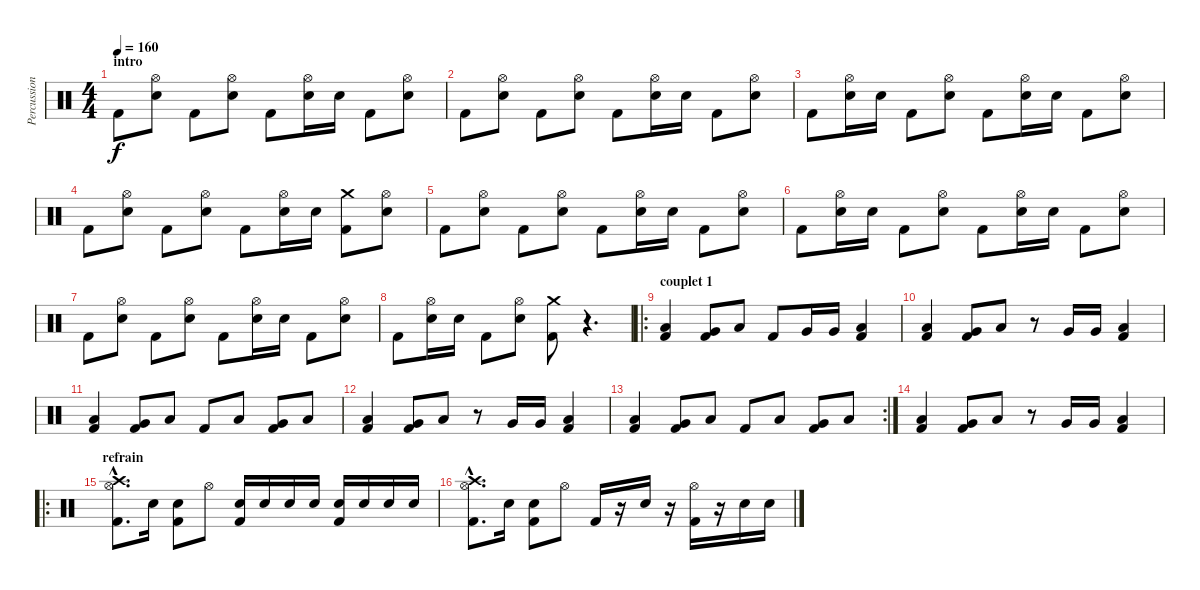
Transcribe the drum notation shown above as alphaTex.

\track ("Percussions" "Percussion") {instrument percussion}
\staff {score}
\articulation defaults
\ts (4 4)
\section ("" "intro")
\tempo 160
\clef neutral
\ks c "Kick (hit) 2".8{dy f}
("Electric Snare (hit)" "Hi-Hat (open)").8 "Kick (hit) 2".8 ("Electric Snare (hit)" "Hi-Hat (open)").8 "Kick (hit) 2".8 ("Electric Snare (hit)" "Hi-Hat (open)").16 "Electric Snare (hit)".16 "Kick (hit) 2".8 ("Electric Snare (hit)" "Hi-Hat (open)").8 |
"Kick (hit) 2".8 ("Electric Snare (hit)" "Hi-Hat (open)").8 "Kick (hit) 2".8 ("Electric Snare (hit)" "Hi-Hat (open)").8 "Kick (hit) 2".8 ("Electric Snare (hit)" "Hi-Hat (open)").16 "Electric Snare (hit)".16 "Kick (hit) 2".8 ("Electric Snare (hit)" "Hi-Hat (open)").8 |
"Kick (hit) 2".8 ("Electric Snare (hit)" "Hi-Hat (open)").16 "Electric Snare (hit)".16 "Kick (hit) 2".8 ("Electric Snare (hit)" "Hi-Hat (open)").8 "Kick (hit) 2".8 ("Electric Snare (hit)" "Hi-Hat (open)").16 "Electric Snare (hit)".16 "Kick (hit) 2".8 ("Electric Snare (hit)" "Hi-Hat (open)").8 |
"Kick (hit) 2".8 ("Electric Snare (hit)" "Hi-Hat (open)").8 "Kick (hit) 2".8 ("Electric Snare (hit)" "Hi-Hat (open)").8 "Kick (hit) 2".8 ("Electric Snare (hit)" "Hi-Hat (open)").16 "Electric Snare (hit)".16 ("Kick (hit) 2" "Crash medium (hit)").8 ("Electric Snare (hit)" "Hi-Hat (open)").8 |
"Kick (hit) 2".8 ("Electric Snare (hit)" "Hi-Hat (open)").8 "Kick (hit) 2".8 ("Electric Snare (hit)" "Hi-Hat (open)").8 "Kick (hit) 2".8 ("Electric Snare (hit)" "Hi-Hat (open)").16 "Electric Snare (hit)".16 "Kick (hit) 2".8 ("Electric Snare (hit)" "Hi-Hat (open)").8 |
"Kick (hit) 2".8 ("Electric Snare (hit)" "Hi-Hat (open)").16 "Electric Snare (hit)".16 "Kick (hit) 2".8 ("Electric Snare (hit)" "Hi-Hat (open)").8 "Kick (hit) 2".8 ("Electric Snare (hit)" "Hi-Hat (open)").16 "Electric Snare (hit)".16 "Kick (hit) 2".8 ("Electric Snare (hit)" "Hi-Hat (open)").8 |
"Kick (hit) 2".8 ("Electric Snare (hit)" "Hi-Hat (open)").8 "Kick (hit) 2".8 ("Electric Snare (hit)" "Hi-Hat (open)").8 "Kick (hit) 2".8 ("Electric Snare (hit)" "Hi-Hat (open)").16 "Electric Snare (hit)".16 "Kick (hit) 2".8 ("Electric Snare (hit)" "Hi-Hat (open)").8 |
"Kick (hit) 2".8 ("Electric Snare (hit)" "Hi-Hat (open)").16 "Electric Snare (hit)".16 "Kick (hit) 2".8 ("Electric Snare (hit)" "Hi-Hat (open)").8 ("Kick (hit) 2" "Crash medium (hit)").8 r.4{d} |
\ro
\section ("" "couplet 1")
("Kick (hit) 2" "Low Floor Tom (hit)").4{volume 15} ("Kick (hit) 2" "Very Low Tom (hit)").8 "Low Floor Tom (hit)".8 "Kick (hit) 2".8 "Very Low Tom (hit)".16 "Very Low Tom (hit)".16 ("Kick (hit) 2" "Low Floor Tom (hit)").4 |
("Kick (hit) 2" "Low Floor Tom (hit)").4 ("Kick (hit) 2" "Very Low Tom (hit)").8 "Low Floor Tom (hit)".8 r.8 "Very Low Tom (hit)".16 "Very Low Tom (hit)".16 ("Kick (hit) 2" "Low Floor Tom (hit)").4 |
("Kick (hit) 2" "Low Floor Tom (hit)").4 ("Kick (hit) 2" "Very Low Tom (hit)").8 "Low Floor Tom (hit)".8 "Kick (hit) 2".8 "Low Floor Tom (hit)".8 ("Kick (hit) 2" "Very Low Tom (hit)").8 "Low Tom (hit)".8 |
("Kick (hit) 2" "Low Floor Tom (hit)").4 ("Kick (hit) 2" "Very Low Tom (hit)").8 "Low Floor Tom (hit)".8 r.8 "Very Low Tom (hit)".16 "Very Low Tom (hit)".16 ("Kick (hit) 2" "Low Floor Tom (hit)").4 |
\rc 2
("Kick (hit) 2" "Low Floor Tom (hit)").4 ("Kick (hit) 2" "Very Low Tom (hit)").8 "Low Floor Tom (hit)".8 "Kick (hit) 2".8 "Low Floor Tom (hit)".8 ("Kick (hit) 2" "Very Low Tom (hit)").8 "Low Tom (hit)".8 |
("Kick (hit) 2" "Low Floor Tom (hit)").4 ("Kick (hit) 2" "Very Low Tom (hit)").8 "Low Floor Tom (hit)".8 r.8 "Very Low Tom (hit)".16 "Very Low Tom (hit)".16 ("Kick (hit) 2" "Low Floor Tom (hit)").4 |
\ro
\section ("" "refrain")
("Kick (hit) 2"{hac} "Hi-Hat (open)"{hac} "Crash high (hit)"{hac}).8{d} "Electric Snare (hit)".16 ("Kick (hit) 2" "Electric Snare (hit)").8 "Hi-Hat (open)".8 ("Kick (hit) 2" "Electric Snare (hit)").16 "Electric Snare (hit)".16 "Electric Snare (hit)".16 "Electric Snare (hit)".16 ("Kick (hit) 2" "Electric Snare (hit)").16 "Electric Snare (hit)".16 "Electric Snare (hit)".16 "Electric Snare (hit)".16 |
("Kick (hit) 2"{hac} "Hi-Hat (open)"{hac} "Crash high (hit)"{hac}).8{d} "Electric Snare (hit)".16 ("Kick (hit) 2" "Electric Snare (hit)").8 "Hi-Hat (open)".8 "Kick (hit) 2".16 r.16 "Electric Snare (hit)".16 r.16 ("Kick (hit) 2" "Hi-Hat (open)").16 r.16 "Electric Snare (hit)".16 "Electric Snare (hit)".16
